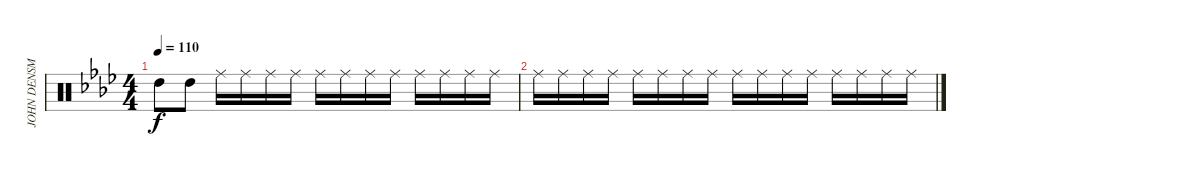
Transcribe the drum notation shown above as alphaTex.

\track ("JOHN DENSMORE" "JOHN DENSM") {instrument percussion}
\staff {score}
\articulation defaults
\ts (4 4)
\tempo 110
\clef neutral
\ks ab "High Tom (hit)".8{dy f} "High Tom (hit)".8 "Ride (middle)".16 "Ride (middle)".16 "Ride (middle)".16 "Ride (middle)".16 "Ride (middle)".16 "Ride (middle)".16 "Ride (middle)".16{volume 0} "Ride (middle)".16 "Ride (middle)".16 "Ride (middle)".16 "Ride (middle)".16 "Ride (middle)".16
|
"Ride (middle)".16 "Ride (middle)".16 "Ride (middle)".16 "Ride (middle)".16 "Ride (middle)".16 "Ride (middle)".16 "Ride (middle)".16 "Ride (middle)".16 "Ride (middle)".16 "Ride (middle)".16 "Ride (middle)".16 "Ride (middle)".16 "Ride (middle)".16 "Ride (middle)".16 "Ride (middle)".16 "Ride (middle)".16
